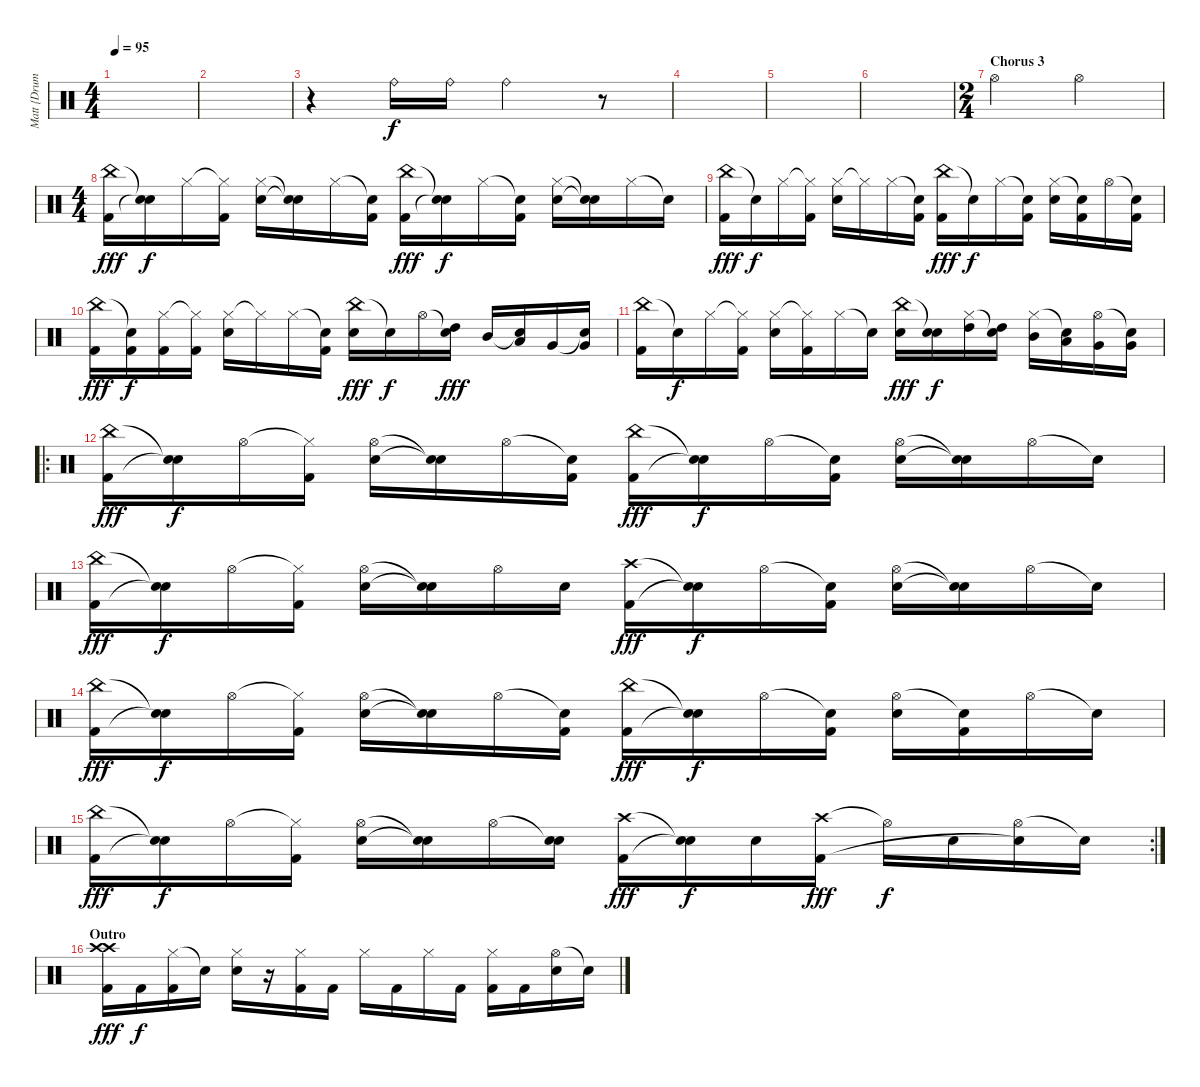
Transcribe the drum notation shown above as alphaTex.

\track ("Matt {Drums}" "Matt {Drum") {instrument percussion}
\staff {score}
\articulation defaults
\ts (4 4)
\tempo 95
\clef neutral
\ks c
|
|
r.4 "Ride (bell)".16 "Ride (bell)".16 "Ride (bell)".2 r.8 |
|
|
|
\ts (2 4)
\section ("" "Chorus 3")
"Hi-Hat (open)".4 "Hi-Hat (open)".4 |
\ts (4 4)
("China (hit)" "Kick (hit) 2").16{dy fff} ("Snare (hit)"{t} "Snare (hit)"{t}).16{dy f} "Hi-Hat (closed)".16 ("Hi-Hat (closed)"{t} "Kick (hit) 2").16 ("Hi-Hat (closed)" "Electric Snare (hit)").16 ("Snare (hit)"{t} "Snare (hit)"{t}).16 "Hi-Hat (closed)".16 ("Snare (hit)"{t} "Kick (hit) 2").16 ("China (hit)" "Kick (hit) 2").16{dy fff} ("Snare (hit)"{t} "Snare (hit)"{t}).16{dy f} "Hi-Hat (closed)".16 ("Snare (hit)"{t} "Kick (hit) 2").16 ("Hi-Hat (closed)" "Electric Snare (hit)").16 ("Snare (hit)"{t} "Snare (hit)"{t}).16 "Hi-Hat (closed)".16 "Snare (hit)"{t}.16 |
("China (hit)" "Kick (hit) 2").16{dy fff} "Snare (hit)"{t}.16{dy f} "Hi-Hat (closed)".16 ("Hi-Hat (closed)"{t} "Kick (hit) 2").16 ("Hi-Hat (closed)" "Electric Snare (hit)").16 "Hi-Hat (closed)"{t}.16 "Hi-Hat (closed)".16 ("Snare (hit)"{t} "Kick (hit) 2").16 ("China (hit)" "Kick (hit) 2").16{dy fff} "Snare (hit)"{t}.16{dy f} "Hi-Hat (closed)".16 ("Snare (hit)"{t} "Kick (hit) 2").16 ("Hi-Hat (closed)" "Electric Snare (hit)").16 ("Snare (hit)"{t} "Kick (hit) 2").16 "Hi-Hat (open)".16 ("Snare (hit)"{t} "Kick (hit) 2").16 |
("China (hit)" "Kick (hit) 2").16{dy fff} ("Snare (hit)"{t} "Kick (hit) 2").16{dy f} ("Hi-Hat (closed)" "Kick (hit) 2").16 ("Hi-Hat (closed)"{t} "Kick (hit) 2").16 ("Hi-Hat (closed)" "Electric Snare (hit)").16 "Hi-Hat (closed)"{t}.16 "Hi-Hat (closed)".16 ("Snare (hit)"{t} "Kick (hit) 2").16 ("China (hit)" "Electric Snare (hit)").16{dy fff} "Snare (hit)"{t}.16{dy f} "Hi-Hat (open)".16 ("Snare (hit)"{t} "High Tom (hit)").16{dy fff} "Mid Tom (hit)".16 ("Snare (hit)"{t} "Low Tom (hit)").16 "Very Low Tom (hit)".16 ("Snare (hit)"{t} "Very Low Tom (hit)").16 |
("China (hit)" "Kick (hit) 2").16 "Snare (hit)"{t}.16{dy f} "Hi-Hat (closed)".16 ("Hi-Hat (closed)"{t} "Kick (hit) 2").16 ("Hi-Hat (closed)" "Electric Snare (hit)").16 ("Hi-Hat (closed)"{t} "Kick (hit) 2").16 "Hi-Hat (closed)".16 "Snare (hit)"{t}.16 ("China (hit)" "Electric Snare (hit)").16{dy fff} ("Snare (hit)"{t} "Electric Snare (hit)").16{dy f} ("Hi-Hat (closed)" "High Tom (hit)").16 ("Snare (hit)"{t} "High Tom (hit)").16 ("Hi-Hat (closed)" "Mid Tom (hit)").16 ("Snare (hit)"{t} "Low Tom (hit)").16 ("Hi-Hat (open)" "Very Low Tom (hit)").16 ("Snare (hit)"{t} "Very Low Tom (hit)").16 |
\ro
("China (hit)" "Kick (hit) 2").16{dy fff} ("Snare (hit)"{t} "Snare (hit)"{t}).16{dy f} "Hi-Hat (open)".16 ("Hi-Hat (closed)"{t} "Kick (hit) 2").16 ("Hi-Hat (open)" "Electric Snare (hit)").16 ("Snare (hit)"{t} "Snare (hit)"{t}).16 "Hi-Hat (open)".16 ("Snare (hit)"{t} "Kick (hit) 2").16 ("China (hit)" "Kick (hit) 2").16{dy fff} ("Snare (hit)"{t} "Snare (hit)"{t}).16{dy f} "Hi-Hat (open)".16 ("Snare (hit)"{t} "Kick (hit) 2").16 ("Hi-Hat (open)" "Electric Snare (hit)").16 ("Snare (hit)"{t} "Snare (hit)"{t}).16 "Hi-Hat (open)".16 "Snare (hit)"{t}.16 |
("China (hit)" "Kick (hit) 2").16{dy fff} ("Snare (hit)"{t} "Snare (hit)"{t}).16{dy f} "Hi-Hat (open)".16 ("Hi-Hat (closed)"{t} "Kick (hit) 2").16 ("Hi-Hat (open)" "Electric Snare (hit)").16 ("Snare (hit)"{t} "Snare (hit)"{t}).16 "Hi-Hat (open)".16 "Electric Snare (hit)".16 ("Crash high (hit)" "Kick (hit) 2").16{dy fff} ("Snare (hit)"{t} "Snare (hit)"{t}).16{dy f} "Hi-Hat (open)".16 ("Snare (hit)"{t} "Kick (hit) 2").16 ("Hi-Hat (open)" "Electric Snare (hit)").16 ("Snare (hit)"{t} "Snare (hit)"{t}).16 "Hi-Hat (open)".16 "Snare (hit)"{t}.16 |
("China (hit)" "Kick (hit) 2").16{dy fff} ("Snare (hit)"{t} "Snare (hit)"{t}).16{dy f} "Hi-Hat (open)".16 ("Hi-Hat (closed)"{t} "Kick (hit) 2").16 ("Hi-Hat (open)" "Electric Snare (hit)").16 ("Snare (hit)"{t} "Snare (hit)"{t}).16 "Hi-Hat (open)".16 ("Snare (hit)"{t} "Kick (hit) 2").16 ("China (hit)" "Kick (hit) 2").16{dy fff} ("Snare (hit)"{t} "Snare (hit)"{t}).16{dy f} "Hi-Hat (open)".16 ("Snare (hit)"{t} "Kick (hit) 2").16 ("Hi-Hat (open)" "Electric Snare (hit)").16 ("Snare (hit)"{t} "Kick (hit) 2").16 "Hi-Hat (open)".16 "Snare (hit)"{t}.16 |
\rc 2
("China (hit)" "Kick (hit) 2").16{dy fff} ("Snare (hit)"{t} "Snare (hit)"{t}).16{dy f} "Hi-Hat (open)".16 ("Hi-Hat (closed)"{t} "Kick (hit) 2").16 ("Hi-Hat (open)" "Electric Snare (hit)").16 ("Snare (hit)"{t} "Snare (hit)"{t}).16 "Hi-Hat (open)".16 ("Snare (hit)"{t} "Electric Snare (hit)").16 ("Crash high (hit)" "Kick (hit) 2").16{dy fff} ("Snare (hit)"{t} "Snare (hit)"{t}).16{dy f} "Electric Snare (hit)".16 ("Crash high (hit)" "Kick (hit) 2").16{dy fff} "Hi-Hat (open)"{t}.16{dy f} "Electric Snare (hit)".16 ("Hi-Hat (open)" "Snare (hit)"{t}).16 "Snare (hit)"{t}.16 |
\section ("" "Outro")
("Crash high (hit)" "Crash high (hit)" "Kick (hit) 2").16{dy fff} "Kick (hit) 2".16{dy f} ("Hi-Hat (closed)" "Kick (hit) 2").16 "Electric Snare (hit)"{t}.16 ("Hi-Hat (closed)" "Electric Snare (hit)").16 r.16 ("Hi-Hat (closed)" "Kick (hit) 2").16 "Kick (hit) 2".16 "Hi-Hat (closed)".16 "Kick (hit) 2".16 "Hi-Hat (closed)".16 "Kick (hit) 2".16 ("Hi-Hat (closed)" "Kick (hit) 2").16 "Kick (hit) 2".16 ("Hi-Hat (open)" "Electric Snare (hit)").16 "Snare (hit)"{t}.16
